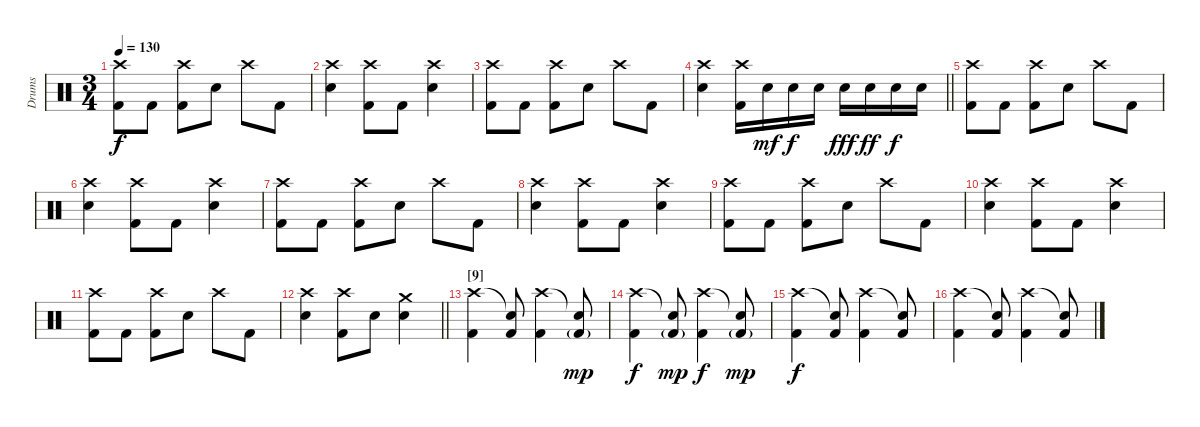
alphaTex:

\track ("Drums" "Drums") {instrument percussion}
\staff {score}
\articulation defaults
\ts (3 4)
\tempo 130
\clef neutral
\ks c
("Crash high (hit)" "Kick (hit) 2").8{dy f} "Kick (hit) 2".8 ("Crash high (hit)" "Kick (hit) 2").8 "Electric Snare (hit)".8 "Crash high (hit)".8 "Kick (hit) 2".8 |
("Crash high (hit)" "Electric Snare (hit)").4 ("Crash high (hit)" "Kick (hit) 2").8 "Kick (hit) 2".8 ("Crash high (hit)" "Electric Snare (hit)").4 |
("Crash high (hit)" "Kick (hit) 2").8 "Kick (hit) 2".8 ("Crash high (hit)" "Kick (hit) 2").8 "Electric Snare (hit)".8 "Crash high (hit)".8 "Kick (hit) 2".8 |
\barLineRight lightlight
("Crash high (hit)" "Electric Snare (hit)").4 ("Crash high (hit)" "Kick (hit) 2").16 "Electric Snare (hit)".16{dy mf} "Electric Snare (hit)".16{dy f} "Electric Snare (hit)".16 "Electric Snare (hit)".16{dy fff} "Electric Snare (hit)".16{dy ff} "Electric Snare (hit)".16{dy f} "Electric Snare (hit)".16 |
\section ("" "")
("Crash high (hit)" "Kick (hit) 2").8 "Kick (hit) 2".8 ("Crash high (hit)" "Kick (hit) 2").8 "Electric Snare (hit)".8 "Crash high (hit)".8 "Kick (hit) 2".8 |
("Crash high (hit)" "Electric Snare (hit)").4 ("Crash high (hit)" "Kick (hit) 2").8 "Kick (hit) 2".8 ("Crash high (hit)" "Electric Snare (hit)").4 |
("Crash high (hit)" "Kick (hit) 2").8 "Kick (hit) 2".8 ("Crash high (hit)" "Kick (hit) 2").8 "Electric Snare (hit)".8 "Crash high (hit)".8 "Kick (hit) 2".8 |
("Crash high (hit)" "Electric Snare (hit)").4 ("Crash high (hit)" "Kick (hit) 2").8 "Kick (hit) 2".8 ("Crash high (hit)" "Electric Snare (hit)").4 |
("Crash high (hit)" "Kick (hit) 2").8 "Kick (hit) 2".8 ("Crash high (hit)" "Kick (hit) 2").8 "Electric Snare (hit)".8 "Crash high (hit)".8 "Kick (hit) 2".8 |
("Crash high (hit)" "Electric Snare (hit)").4 ("Crash high (hit)" "Kick (hit) 2").8 "Kick (hit) 2".8 ("Crash high (hit)" "Electric Snare (hit)").4 |
("Crash high (hit)" "Kick (hit) 2").8 "Kick (hit) 2".8 ("Crash high (hit)" "Kick (hit) 2").8 "Electric Snare (hit)".8 "Crash high (hit)".8 "Kick (hit) 2".8 |
\barLineRight lightlight
("Crash high (hit)" "Electric Snare (hit)").4 ("Crash high (hit)" "Kick (hit) 2").8 "Electric Snare (hit)".8 ("Crash medium (hit)" "Electric Snare (hit)").4 |
\section ("" "[9]")
("Crash high (hit)" "Kick (hit) 2").4 ("Snare (hit)"{t} "Kick (hit) 2").8 ("Crash high (hit)" "Kick (hit) 2").4 ("Snare (hit)"{t} "Kick (hit) 2"{g}).8{dy mp} |
("Crash high (hit)" "Kick (hit) 2").4{dy f} ("Snare (hit)"{t} "Kick (hit) 2"{g}).8{dy mp} ("Crash high (hit)" "Kick (hit) 2").4{dy f} ("Snare (hit)"{t} "Kick (hit) 2"{g}).8{dy mp} |
("Crash high (hit)" "Kick (hit) 2").4{dy f} ("Snare (hit)"{t} "Kick (hit) 2").8 ("Crash high (hit)" "Kick (hit) 2").4 ("Snare (hit)"{t} "Kick (hit) 2").8 |
("Crash high (hit)" "Kick (hit) 2").4 ("Snare (hit)"{t} "Kick (hit) 2").8 ("Crash high (hit)" "Kick (hit) 2").4 ("Snare (hit)"{t} "Kick (hit) 2").8
